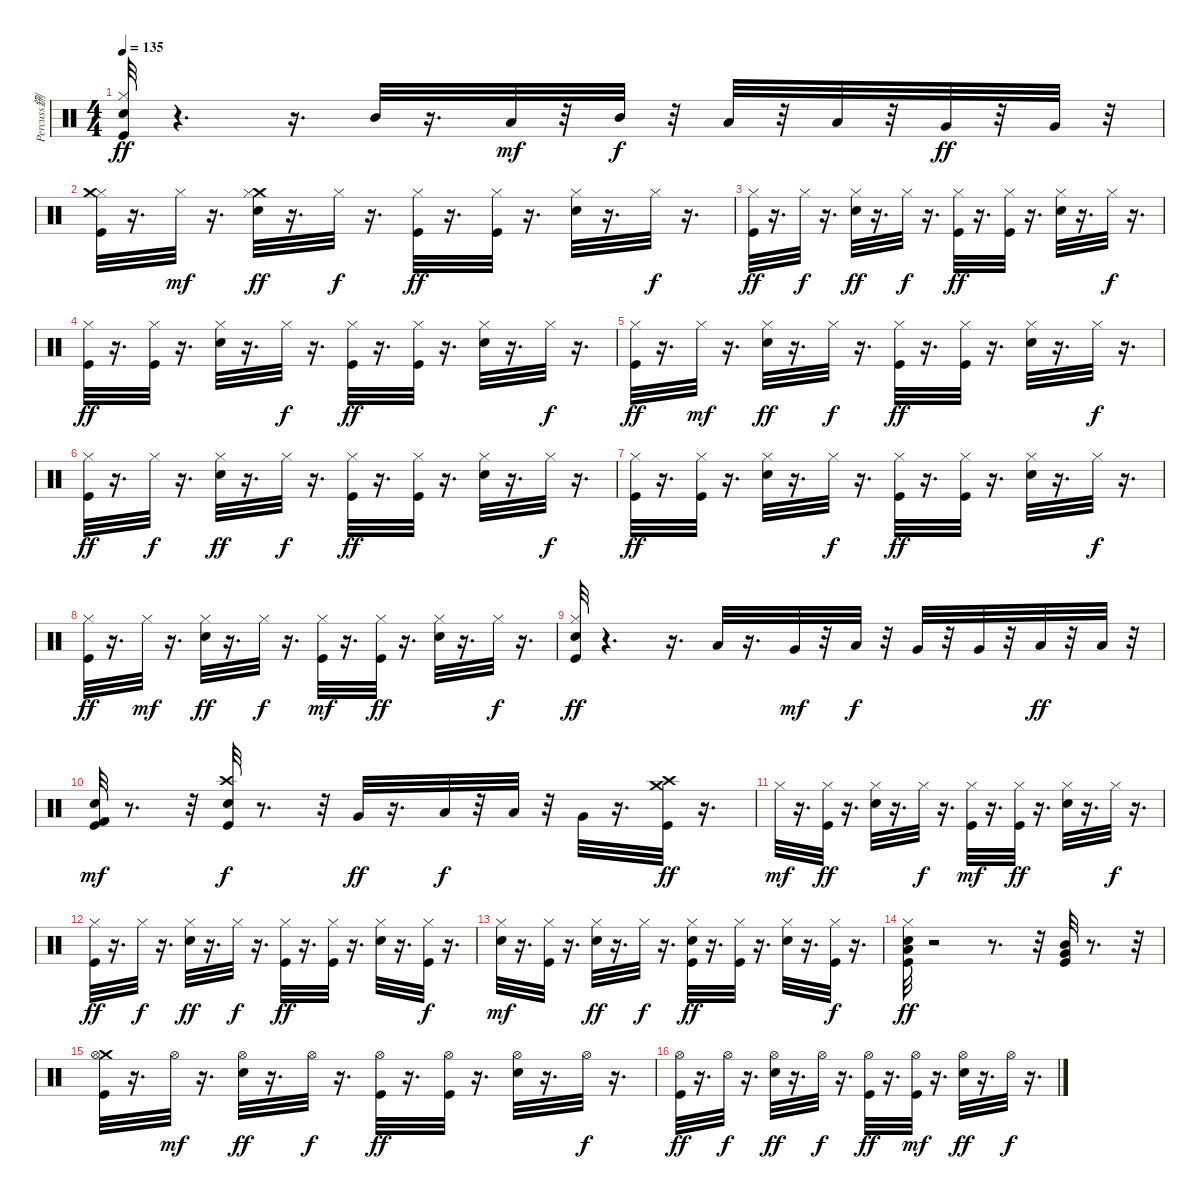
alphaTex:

\track ("Percuss鉶" "Percuss鉶") {instrument percussion}
\staff {score}
\articulation defaults
\ts (4 4)
\tempo 135
\clef neutral
\ks c
("Electric Snare (hit)" "Hi-Hat (closed)" "Kick (hit)").32{dy ff} r.4{d} r.16{d} "Mid Tom (hit)".32 r.16{d} "Low Tom (hit)".32{dy mf} r.32 "Mid Tom (hit)".32{dy f} r.32 "Low Tom (hit)".32 r.32 "Low Tom (hit)".32 r.32 "Very Low Tom (hit)".32{dy ff} r.32 "Very Low Tom (hit)".32 r.32 |
("Hi-Hat (closed)" "Kick (hit)" "Crash medium (hit)").32 r.16{d} "Hi-Hat (closed)".32{dy mf} r.16{d} ("Crash medium (hit)" "Hi-Hat (closed)" "Electric Snare (hit)").32{dy ff} r.16{d} "Hi-Hat (closed)".32{dy f} r.16{d} ("Hi-Hat (closed)" "Kick (hit)").32{dy ff} r.16{d} ("Kick (hit)" "Hi-Hat (closed)").32 r.16{d} ("Hi-Hat (closed)" "Electric Snare (hit)").32 r.16{d} "Hi-Hat (closed)".32{dy f} r.16{d} |
("Kick (hit)" "Hi-Hat (closed)").32{dy ff} r.16{d} "Hi-Hat (closed)".32{dy f} r.16{d} ("Electric Snare (hit)" "Hi-Hat (closed)").32{dy ff} r.16{d} "Hi-Hat (closed)".32{dy f} r.16{d} ("Kick (hit)" "Hi-Hat (closed)").32{dy ff} r.16{d} ("Hi-Hat (closed)" "Kick (hit)").32 r.16{d} ("Hi-Hat (closed)" "Electric Snare (hit)").32 r.16{d} "Hi-Hat (closed)".32{dy f} r.16{d} |
("Hi-Hat (closed)" "Kick (hit)").32{dy ff} r.16{d} ("Hi-Hat (closed)" "Kick (hit)").32 r.16{d} ("Hi-Hat (closed)" "Electric Snare (hit)").32 r.16{d} "Hi-Hat (closed)".32{dy f} r.16{d} ("Kick (hit)" "Hi-Hat (closed)").32{dy ff} r.16{d} ("Hi-Hat (closed)" "Kick (hit)").32 r.16{d} ("Electric Snare (hit)" "Hi-Hat (closed)").32 r.16{d} "Hi-Hat (closed)".32{dy f} r.16{d} |
("Kick (hit)" "Hi-Hat (closed)").32{dy ff} r.16{d} "Hi-Hat (closed)".32{dy mf} r.16{d} ("Hi-Hat (closed)" "Electric Snare (hit)").32{dy ff} r.16{d} "Hi-Hat (closed)".32{dy f} r.16{d} ("Hi-Hat (closed)" "Kick (hit)").32{dy ff} r.16{d} ("Kick (hit)" "Hi-Hat (closed)").32 r.16{d} ("Electric Snare (hit)" "Hi-Hat (closed)").32 r.16{d} "Hi-Hat (closed)".32{dy f} r.16{d} |
("Hi-Hat (closed)" "Kick (hit)").32{dy ff} r.16{d} "Hi-Hat (closed)".32{dy f} r.16{d} ("Hi-Hat (closed)" "Electric Snare (hit)").32{dy ff} r.16{d} "Hi-Hat (closed)".32{dy f} r.16{d} ("Kick (hit)" "Hi-Hat (closed)").32{dy ff} r.16{d} ("Hi-Hat (closed)" "Kick (hit)").32 r.16{d} ("Hi-Hat (closed)" "Electric Snare (hit)").32 r.16{d} "Hi-Hat (closed)".32{dy f} r.16{d} |
("Hi-Hat (closed)" "Kick (hit)").32{dy ff} r.16{d} ("Hi-Hat (closed)" "Kick (hit)").32 r.16{d} ("Hi-Hat (closed)" "Electric Snare (hit)").32 r.16{d} "Hi-Hat (closed)".32{dy f} r.16{d} ("Kick (hit)" "Hi-Hat (closed)").32{dy ff} r.16{d} ("Hi-Hat (closed)" "Kick (hit)").32 r.16{d} ("Hi-Hat (closed)" "Electric Snare (hit)").32 r.16{d} "Hi-Hat (closed)".32{dy f} r.16{d} |
("Kick (hit)" "Hi-Hat (closed)").32{dy ff} r.16{d} "Hi-Hat (closed)".32{dy mf} r.16{d} ("Hi-Hat (closed)" "Electric Snare (hit)").32{dy ff} r.16{d} "Hi-Hat (closed)".32{dy f} r.16{d} ("Kick (hit)" "Hi-Hat (closed)").32{dy mf} r.16{d} ("Hi-Hat (closed)" "Kick (hit)").32{dy ff} r.16{d} ("Electric Snare (hit)" "Hi-Hat (closed)").32 r.16{d} "Hi-Hat (closed)".32{dy f} r.16{d} |
("Electric Snare (hit)" "Hi-Hat (closed)" "Kick (hit)").32{dy ff} r.4{d} r.16{d} "Low Floor Tom (hit)".32 r.16{d} "Very Low Tom (hit)".32{dy mf} r.32 "Low Tom (hit)".32{dy f} r.32 "Very Low Tom (hit)".32 r.32 "Very Low Tom (hit)".32 r.32 "Low Floor Tom (hit)".32{dy ff} r.32 "Low Floor Tom (hit)".32 r.32 |
("Kick (hit)" "Kick (hit) 2" "Electric Snare (hit)").32{dy mf} r.8{d} r.32 ("Kick (hit)" "Crash high (hit)" "Snare (hit) 2").32{dy f} r.8{d} r.32 "Very Low Tom (hit)".32{dy ff} r.16{d} "Low Floor Tom (hit)".32{dy f} r.32 "Low Tom (hit)".32 r.32 "Very Low Tom (hit)".32 r.16{d} ("Crash high (hit)" "Crash medium (hit)" "Kick (hit)").32{dy ff} r.16{d} |
"Hi-Hat (closed)".32{dy mf} r.16{d} ("Hi-Hat (closed)" "Kick (hit)").32{dy ff} r.16{d} ("Electric Snare (hit)" "Hi-Hat (closed)").32 r.16{d} "Hi-Hat (closed)".32{dy f} r.16{d} ("Kick (hit)" "Hi-Hat (closed)").32{dy mf} r.16{d} ("Hi-Hat (closed)" "Kick (hit)").32{dy ff} r.16{d} ("Electric Snare (hit)" "Hi-Hat (closed)").32 r.16{d} "Hi-Hat (closed)".32{dy f} r.16{d} |
("Hi-Hat (closed)" "Kick (hit)").32{dy ff} r.16{d} "Hi-Hat (closed)".32{dy f} r.16{d} ("Hi-Hat (closed)" "Electric Snare (hit)").32{dy ff} r.16{d} "Hi-Hat (closed)".32{dy f} r.16{d} ("Kick (hit)" "Hi-Hat (closed)").32{dy ff} r.16{d} ("Hi-Hat (closed)" "Kick (hit)").32 r.16{d} ("Electric Snare (hit)" "Hi-Hat (closed)").32 r.16{d} ("Hi-Hat (closed)" "Kick (hit)").32{dy f} r.16{d} |
("Electric Snare (hit)" "Hi-Hat (closed)").32{dy mf} r.16{d} ("Kick (hit)" "Hi-Hat (closed)").32 r.16{d} ("Hi-Hat (closed)" "Electric Snare (hit)").32{dy ff} r.16{d} "Hi-Hat (closed)".32{dy f} r.16{d} ("Hi-Hat (closed)" "Kick (hit)" "Electric Snare (hit)").32{dy ff} r.16{d} ("Hi-Hat (closed)" "Kick (hit)").32 r.16{d} ("Hi-Hat (closed)" "Electric Snare (hit)").32 r.16{d} ("Kick (hit)" "Hi-Hat (closed)").32{dy f} r.16{d} |
("Low Floor Tom (hit)" "Kick (hit)" "Electric Snare (hit)" "Hi-Hat (closed)").32{dy ff} r.2 r.8{d} r.32 ("Kick (hit)" "Mid Tom (hit)" "Very Low Tom (hit)").32 r.8{d} r.32 |
("Crash medium (hit)" "Hi-Hat (open)" "Kick (hit)").32 r.16{d} "Hi-Hat (open)".32{dy mf} r.16{d} ("Electric Snare (hit)" "Hi-Hat (open)").32{dy ff} r.16{d} "Hi-Hat (open)".32{dy f} r.16{d} ("Hi-Hat (open)" "Kick (hit)").32{dy ff} r.16{d} ("Kick (hit)" "Hi-Hat (open)").32 r.16{d} ("Hi-Hat (open)" "Electric Snare (hit)").32 r.16{d} "Hi-Hat (open)".32{dy f} r.16{d} |
("Hi-Hat (open)" "Kick (hit)").32{dy ff} r.16{d} "Hi-Hat (open)".32{dy f} r.16{d} ("Hi-Hat (open)" "Electric Snare (hit)").32{dy ff} r.16{d} "Hi-Hat (open)".32{dy f} r.16{d} ("Hi-Hat (open)" "Kick (hit)").32{dy ff} r.16{d} ("Kick (hit)" "Hi-Hat (open)").32{dy mf} r.16{d} ("Hi-Hat (open)" "Electric Snare (hit)").32{dy ff} r.16{d} "Hi-Hat (open)".32{dy f} r.16{d}
